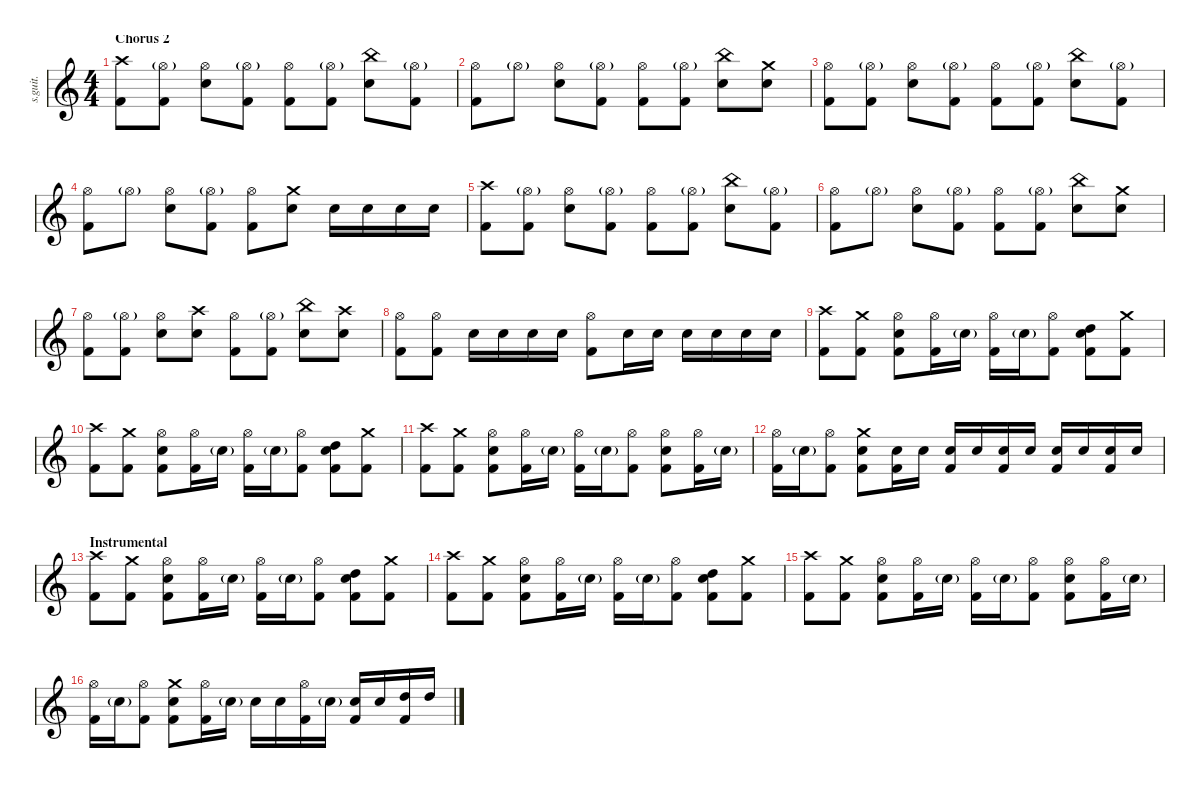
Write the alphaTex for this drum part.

\defaultSystemsLayout 4
\hideDynamics
\bracketExtendMode nobrackets
\track ("Feargal Lawler (Drums)" "s.guit.") {instrument percussion}
\staff {score}
\articulation defaults
\ts (4 4)
\section ("" "Chorus 2")
\tempo (82 hide)
\clef g2
\ks c
("Crash high (hit)" "Kick (hit) 2").8{lyrics (0 "") lyrics (1 "") lyrics (2 "") lyrics (3 "") lyrics (4 "") dy ff} ("Hi-Hat (open)"{g} "Kick (hit) 2").8{lyrics (0 "") lyrics (1 "") lyrics (2 "") lyrics (3 "") lyrics (4 "")} ("Hi-Hat (open)" "Snare (hit) 2").8{lyrics (0 "") lyrics (1 "") lyrics (2 "") lyrics (3 "") lyrics (4 "")} ("Hi-Hat (open)"{g} "Kick (hit) 2").8{lyrics (0 "") lyrics (1 "") lyrics (2 "") lyrics (3 "") lyrics (4 "")} ("Hi-Hat (open)" "Kick (hit) 2").8{lyrics (0 "") lyrics (1 "") lyrics (2 "") lyrics (3 "") lyrics (4 "")} ("Hi-Hat (open)"{g} "Kick (hit) 2").8{lyrics (0 "") lyrics (1 "") lyrics (2 "") lyrics (3 "") lyrics (4 "")} ("China (hit)" "Snare (hit) 2").8{lyrics (0 "") lyrics (1 "") lyrics (2 "") lyrics (3 "") lyrics (4 "")} ("Hi-Hat (open)"{g} "Kick (hit) 2").8{lyrics (0 "") lyrics (1 "") lyrics (2 "") lyrics (3 "") lyrics (4 "")} |
("Hi-Hat (open)" "Kick (hit) 2").8{lyrics (0 "") lyrics (1 "") lyrics (2 "") lyrics (3 "") lyrics (4 "")} "Hi-Hat (open)"{g}.8{lyrics (0 "") lyrics (1 "") lyrics (2 "") lyrics (3 "") lyrics (4 "")} ("Hi-Hat (open)" "Snare (hit) 2").8{lyrics (0 "") lyrics (1 "") lyrics (2 "") lyrics (3 "") lyrics (4 "")} ("Hi-Hat (open)"{g} "Kick (hit) 2").8{lyrics (0 "") lyrics (1 "") lyrics (2 "") lyrics (3 "") lyrics (4 "")} ("Hi-Hat (open)" "Kick (hit) 2").8{lyrics (0 "") lyrics (1 "") lyrics (2 "") lyrics (3 "") lyrics (4 "")} ("Hi-Hat (open)"{g} "Kick (hit) 2").8{lyrics (0 "") lyrics (1 "") lyrics (2 "") lyrics (3 "") lyrics (4 "")} ("China (hit)" "Snare (hit) 2").8{lyrics (0 "") lyrics (1 "") lyrics (2 "") lyrics (3 "") lyrics (4 "")} ("Crash medium (hit)" "Snare (hit) 2").8{lyrics (0 "") lyrics (1 "") lyrics (2 "") lyrics (3 "") lyrics (4 "")} |
("Hi-Hat (open)" "Kick (hit) 2").8{lyrics (0 "") lyrics (1 "") lyrics (2 "") lyrics (3 "") lyrics (4 "")} ("Hi-Hat (open)"{g} "Kick (hit) 2").8{lyrics (0 "") lyrics (1 "") lyrics (2 "") lyrics (3 "") lyrics (4 "")} ("Hi-Hat (open)" "Snare (hit) 2").8{lyrics (0 "") lyrics (1 "") lyrics (2 "") lyrics (3 "") lyrics (4 "")} ("Hi-Hat (open)"{g} "Kick (hit) 2").8{lyrics (0 "") lyrics (1 "") lyrics (2 "") lyrics (3 "") lyrics (4 "")} ("Hi-Hat (open)" "Kick (hit) 2").8{lyrics (0 "") lyrics (1 "") lyrics (2 "") lyrics (3 "") lyrics (4 "")} ("Hi-Hat (open)"{g} "Kick (hit) 2").8{lyrics (0 "") lyrics (1 "") lyrics (2 "") lyrics (3 "") lyrics (4 "")} ("China (hit)" "Snare (hit) 2").8{lyrics (0 "") lyrics (1 "") lyrics (2 "") lyrics (3 "") lyrics (4 "")} ("Hi-Hat (open)"{g} "Kick (hit) 2").8{lyrics (0 "") lyrics (1 "") lyrics (2 "") lyrics (3 "") lyrics (4 "")} |
("Hi-Hat (open)" "Kick (hit) 2").8{lyrics (0 "") lyrics (1 "") lyrics (2 "") lyrics (3 "") lyrics (4 "")} "Hi-Hat (open)"{g}.8{lyrics (0 "") lyrics (1 "") lyrics (2 "") lyrics (3 "") lyrics (4 "")} ("Hi-Hat (open)" "Snare (hit) 2").8{lyrics (0 "") lyrics (1 "") lyrics (2 "") lyrics (3 "") lyrics (4 "")} ("Hi-Hat (open)"{g} "Kick (hit) 2").8{lyrics (0 "") lyrics (1 "") lyrics (2 "") lyrics (3 "") lyrics (4 "")} ("Hi-Hat (open)" "Kick (hit) 2").8{lyrics (0 "") lyrics (1 "") lyrics (2 "") lyrics (3 "") lyrics (4 "")} ("Crash medium (hit)" "Snare (hit) 2").8{lyrics (0 "") lyrics (1 "") lyrics (2 "") lyrics (3 "") lyrics (4 "")} "Snare (hit) 2".16{lyrics (0 "") lyrics (1 "") lyrics (2 "") lyrics (3 "") lyrics (4 "")} "Snare (hit) 2".16{lyrics (0 "") lyrics (1 "") lyrics (2 "") lyrics (3 "") lyrics (4 "")} "Snare (hit) 2".16{lyrics (0 "") lyrics (1 "") lyrics (2 "") lyrics (3 "") lyrics (4 "")} "Snare (hit) 2".16{lyrics (0 "") lyrics (1 "") lyrics (2 "") lyrics (3 "") lyrics (4 "")} |
("Crash high (hit)" "Kick (hit) 2").8{lyrics (0 "") lyrics (1 "") lyrics (2 "") lyrics (3 "") lyrics (4 "")} ("Hi-Hat (open)"{g} "Kick (hit) 2").8{lyrics (0 "") lyrics (1 "") lyrics (2 "") lyrics (3 "") lyrics (4 "")} ("Hi-Hat (open)" "Snare (hit) 2").8{lyrics (0 "") lyrics (1 "") lyrics (2 "") lyrics (3 "") lyrics (4 "")} ("Hi-Hat (open)"{g} "Kick (hit) 2").8{lyrics (0 "") lyrics (1 "") lyrics (2 "") lyrics (3 "") lyrics (4 "")} ("Hi-Hat (open)" "Kick (hit) 2").8{lyrics (0 "") lyrics (1 "") lyrics (2 "") lyrics (3 "") lyrics (4 "")} ("Hi-Hat (open)"{g} "Kick (hit) 2").8{lyrics (0 "") lyrics (1 "") lyrics (2 "") lyrics (3 "") lyrics (4 "")} ("China (hit)" "Snare (hit) 2").8{lyrics (0 "") lyrics (1 "") lyrics (2 "") lyrics (3 "") lyrics (4 "")} ("Hi-Hat (open)"{g} "Kick (hit) 2").8{lyrics (0 "") lyrics (1 "") lyrics (2 "") lyrics (3 "") lyrics (4 "")} |
("Hi-Hat (open)" "Kick (hit) 2").8{lyrics (0 "") lyrics (1 "") lyrics (2 "") lyrics (3 "") lyrics (4 "")} "Hi-Hat (open)"{g}.8{lyrics (0 "") lyrics (1 "") lyrics (2 "") lyrics (3 "") lyrics (4 "")} ("Hi-Hat (open)" "Snare (hit) 2").8{lyrics (0 "") lyrics (1 "") lyrics (2 "") lyrics (3 "") lyrics (4 "")} ("Hi-Hat (open)"{g} "Kick (hit) 2").8{lyrics (0 "") lyrics (1 "") lyrics (2 "") lyrics (3 "") lyrics (4 "")} ("Hi-Hat (open)" "Kick (hit) 2").8{lyrics (0 "") lyrics (1 "") lyrics (2 "") lyrics (3 "") lyrics (4 "")} ("Hi-Hat (open)"{g} "Kick (hit) 2").8{lyrics (0 "") lyrics (1 "") lyrics (2 "") lyrics (3 "") lyrics (4 "")} ("China (hit)" "Snare (hit) 2").8{lyrics (0 "") lyrics (1 "") lyrics (2 "") lyrics (3 "") lyrics (4 "")} ("Crash medium (hit)" "Snare (hit) 2").8{lyrics (0 "") lyrics (1 "") lyrics (2 "") lyrics (3 "") lyrics (4 "")} |
("Hi-Hat (open)" "Kick (hit) 2").8{lyrics (0 "") lyrics (1 "") lyrics (2 "") lyrics (3 "") lyrics (4 "")} ("Hi-Hat (open)"{g} "Kick (hit) 2").8{lyrics (0 "") lyrics (1 "") lyrics (2 "") lyrics (3 "") lyrics (4 "")} ("Hi-Hat (open)" "Snare (hit) 2").8{lyrics (0 "") lyrics (1 "") lyrics (2 "") lyrics (3 "") lyrics (4 "")} ("Crash high (hit)" "Snare (hit) 2").8{lyrics (0 "") lyrics (1 "") lyrics (2 "") lyrics (3 "") lyrics (4 "")} ("Hi-Hat (open)" "Kick (hit) 2").8{lyrics (0 "") lyrics (1 "") lyrics (2 "") lyrics (3 "") lyrics (4 "")} ("Hi-Hat (open)"{g} "Kick (hit) 2").8{lyrics (0 "") lyrics (1 "") lyrics (2 "") lyrics (3 "") lyrics (4 "")} ("China (hit)" "Snare (hit) 2").8{lyrics (0 "") lyrics (1 "") lyrics (2 "") lyrics (3 "") lyrics (4 "")} ("Crash high (hit)" "Snare (hit) 2").8{lyrics (0 "") lyrics (1 "") lyrics (2 "") lyrics (3 "") lyrics (4 "")} |
("Hi-Hat (open)" "Kick (hit) 2").8{lyrics (0 "") lyrics (1 "") lyrics (2 "") lyrics (3 "") lyrics (4 "")} ("Hi-Hat (open)" "Kick (hit) 2").8{lyrics (0 "") lyrics (1 "") lyrics (2 "") lyrics (3 "") lyrics (4 "")} "Snare (hit) 2".16{lyrics (0 "") lyrics (1 "") lyrics (2 "") lyrics (3 "") lyrics (4 "")} "Snare (hit) 2".16{lyrics (0 "") lyrics (1 "") lyrics (2 "") lyrics (3 "") lyrics (4 "")} "Snare (hit) 2".16{lyrics (0 "") lyrics (1 "") lyrics (2 "") lyrics (3 "") lyrics (4 "")} "Snare (hit) 2".16{lyrics (0 "") lyrics (1 "") lyrics (2 "") lyrics (3 "") lyrics (4 "")} ("Hi-Hat (open)" "Kick (hit) 2").8{lyrics (0 "") lyrics (1 "") lyrics (2 "") lyrics (3 "") lyrics (4 "")} "Snare (hit) 2".16{lyrics (0 "") lyrics (1 "") lyrics (2 "") lyrics (3 "") lyrics (4 "")} "Snare (hit) 2".16{lyrics (0 "") lyrics (1 "") lyrics (2 "") lyrics (3 "") lyrics (4 "")} "Snare (hit) 2".16{lyrics (0 "") lyrics (1 "") lyrics (2 "") lyrics (3 "") lyrics (4 "")} "Snare (hit) 2".16{lyrics (0 "") lyrics (1 "") lyrics (2 "") lyrics (3 "") lyrics (4 "")} "Snare (hit) 2".16{lyrics (0 "") lyrics (1 "") lyrics (2 "") lyrics (3 "") lyrics (4 "")} "Snare (hit) 2".16{lyrics (0 "") lyrics (1 "") lyrics (2 "") lyrics (3 "") lyrics (4 "")} |
("Crash high (hit)" "Kick (hit) 2").8{lyrics (0 "") lyrics (1 "") lyrics (2 "") lyrics (3 "") lyrics (4 "")} ("Kick (hit) 2" "Crash medium (hit)").8{lyrics (0 "") lyrics (1 "") lyrics (2 "") lyrics (3 "") lyrics (4 "")} ("Hi-Hat (open)" "Snare (hit) 2" "Kick (hit) 2").8{lyrics (0 "") lyrics (1 "") lyrics (2 "") lyrics (3 "") lyrics (4 "")} ("Hi-Hat (open)" "Kick (hit) 2").16{lyrics (0 "") lyrics (1 "") lyrics (2 "") lyrics (3 "") lyrics (4 "")} "Snare (hit) 2"{g}.16{lyrics (0 "") lyrics (1 "") lyrics (2 "") lyrics (3 "") lyrics (4 "")} ("Hi-Hat (open)" "Kick (hit) 2").16{lyrics (0 "") lyrics (1 "") lyrics (2 "") lyrics (3 "") lyrics (4 "")} "Snare (hit) 2"{g}.16{lyrics (0 "") lyrics (1 "") lyrics (2 "") lyrics (3 "") lyrics (4 "")} ("Hi-Hat (open)" "Kick (hit) 2").8{lyrics (0 "") lyrics (1 "") lyrics (2 "") lyrics (3 "") lyrics (4 "")} ("Snare (hit) 2" "Kick (hit) 2" "High Tom (hit)").8{lyrics (0 "") lyrics (1 "") lyrics (2 "") lyrics (3 "") lyrics (4 "")} ("Crash medium (hit)" "Kick (hit) 2").8{lyrics (0 "") lyrics (1 "") lyrics (2 "") lyrics (3 "") lyrics (4 "")} |
("Crash high (hit)" "Kick (hit) 2").8{lyrics (0 "") lyrics (1 "") lyrics (2 "") lyrics (3 "") lyrics (4 "")} ("Crash medium (hit)" "Kick (hit) 2").8{lyrics (0 "") lyrics (1 "") lyrics (2 "") lyrics (3 "") lyrics (4 "")} ("Hi-Hat (open)" "Snare (hit) 2" "Kick (hit) 2").8{lyrics (0 "") lyrics (1 "") lyrics (2 "") lyrics (3 "") lyrics (4 "")} ("Hi-Hat (open)" "Kick (hit) 2").16{lyrics (0 "") lyrics (1 "") lyrics (2 "") lyrics (3 "") lyrics (4 "")} "Snare (hit) 2"{g}.16{lyrics (0 "") lyrics (1 "") lyrics (2 "") lyrics (3 "") lyrics (4 "")} ("Hi-Hat (open)" "Kick (hit) 2").16{lyrics (0 "") lyrics (1 "") lyrics (2 "") lyrics (3 "") lyrics (4 "")} "Snare (hit) 2"{g}.16{lyrics (0 "") lyrics (1 "") lyrics (2 "") lyrics (3 "") lyrics (4 "")} ("Hi-Hat (open)" "Kick (hit) 2").8{lyrics (0 "") lyrics (1 "") lyrics (2 "") lyrics (3 "") lyrics (4 "")} ("Snare (hit) 2" "Kick (hit) 2" "High Tom (hit)").8{lyrics (0 "") lyrics (1 "") lyrics (2 "") lyrics (3 "") lyrics (4 "")} ("Crash medium (hit)" "Kick (hit) 2").8{lyrics (0 "") lyrics (1 "") lyrics (2 "") lyrics (3 "") lyrics (4 "")} |
("Crash high (hit)" "Kick (hit) 2").8{lyrics (0 "") lyrics (1 "") lyrics (2 "") lyrics (3 "") lyrics (4 "")} ("Crash medium (hit)" "Kick (hit) 2").8{lyrics (0 "") lyrics (1 "") lyrics (2 "") lyrics (3 "") lyrics (4 "")} ("Hi-Hat (open)" "Snare (hit) 2" "Kick (hit) 2").8{lyrics (0 "") lyrics (1 "") lyrics (2 "") lyrics (3 "") lyrics (4 "")} ("Hi-Hat (open)" "Kick (hit) 2").16{lyrics (0 "") lyrics (1 "") lyrics (2 "") lyrics (3 "") lyrics (4 "")} "Snare (hit) 2"{g}.16{lyrics (0 "") lyrics (1 "") lyrics (2 "") lyrics (3 "") lyrics (4 "")} ("Hi-Hat (open)" "Kick (hit) 2").16{lyrics (0 "") lyrics (1 "") lyrics (2 "") lyrics (3 "") lyrics (4 "")} "Snare (hit) 2"{g}.16{lyrics (0 "") lyrics (1 "") lyrics (2 "") lyrics (3 "") lyrics (4 "")} ("Hi-Hat (open)" "Kick (hit) 2").8{lyrics (0 "") lyrics (1 "") lyrics (2 "") lyrics (3 "") lyrics (4 "")} ("Snare (hit) 2" "Kick (hit) 2" "Hi-Hat (open)").8{lyrics (0 "") lyrics (1 "") lyrics (2 "") lyrics (3 "") lyrics (4 "")} ("Hi-Hat (open)" "Kick (hit) 2").16{lyrics (0 "") lyrics (1 "") lyrics (2 "") lyrics (3 "") lyrics (4 "")} "Snare (hit) 2"{g}.16{lyrics (0 "") lyrics (1 "") lyrics (2 "") lyrics (3 "") lyrics (4 "")} |
("Hi-Hat (open)" "Kick (hit) 2").16{lyrics (0 "") lyrics (1 "") lyrics (2 "") lyrics (3 "") lyrics (4 "")} "Snare (hit) 2"{g}.16{lyrics (0 "") lyrics (1 "") lyrics (2 "") lyrics (3 "") lyrics (4 "")} ("Hi-Hat (open)" "Kick (hit) 2").8{lyrics (0 "") lyrics (1 "") lyrics (2 "") lyrics (3 "") lyrics (4 "")} ("Snare (hit) 2" "Kick (hit) 2" "Crash medium (hit)").8{lyrics (0 "") lyrics (1 "") lyrics (2 "") lyrics (3 "") lyrics (4 "")} ("Snare (hit) 2" "Kick (hit) 2").16{lyrics (0 "") lyrics (1 "") lyrics (2 "") lyrics (3 "") lyrics (4 "")} "Snare (hit) 2".16{lyrics (0 "") lyrics (1 "") lyrics (2 "") lyrics (3 "") lyrics (4 "")} ("Snare (hit) 2" "Kick (hit) 2").16{lyrics (0 "") lyrics (1 "") lyrics (2 "") lyrics (3 "") lyrics (4 "")} "Snare (hit) 2".16{lyrics (0 "") lyrics (1 "") lyrics (2 "") lyrics (3 "") lyrics (4 "")} ("Snare (hit) 2" "Kick (hit) 2").16{lyrics (0 "") lyrics (1 "") lyrics (2 "") lyrics (3 "") lyrics (4 "")} "Snare (hit) 2".16{lyrics (0 "") lyrics (1 "") lyrics (2 "") lyrics (3 "") lyrics (4 "")} ("Snare (hit) 2" "Kick (hit) 2").16{lyrics (0 "") lyrics (1 "") lyrics (2 "") lyrics (3 "") lyrics (4 "")} "Snare (hit) 2".16{lyrics (0 "") lyrics (1 "") lyrics (2 "") lyrics (3 "") lyrics (4 "")} ("Snare (hit) 2" "Kick (hit) 2").16{lyrics (0 "") lyrics (1 "") lyrics (2 "") lyrics (3 "") lyrics (4 "")} "Snare (hit) 2".16{lyrics (0 "") lyrics (1 "") lyrics (2 "") lyrics (3 "") lyrics (4 "")} |
\section ("" "Instrumental")
("Crash high (hit)" "Kick (hit) 2").8{lyrics (0 "") lyrics (1 "") lyrics (2 "") lyrics (3 "") lyrics (4 "")} ("Crash medium (hit)" "Kick (hit) 2").8{lyrics (0 "") lyrics (1 "") lyrics (2 "") lyrics (3 "") lyrics (4 "")} ("Hi-Hat (open)" "Snare (hit) 2" "Kick (hit) 2").8{lyrics (0 "") lyrics (1 "") lyrics (2 "") lyrics (3 "") lyrics (4 "")} ("Hi-Hat (open)" "Kick (hit) 2").16{lyrics (0 "") lyrics (1 "") lyrics (2 "") lyrics (3 "") lyrics (4 "")} "Snare (hit) 2"{g}.16{lyrics (0 "") lyrics (1 "") lyrics (2 "") lyrics (3 "") lyrics (4 "")} ("Hi-Hat (open)" "Kick (hit) 2").16{lyrics (0 "") lyrics (1 "") lyrics (2 "") lyrics (3 "") lyrics (4 "")} "Snare (hit) 2"{g}.16{lyrics (0 "") lyrics (1 "") lyrics (2 "") lyrics (3 "") lyrics (4 "")} ("Hi-Hat (open)" "Kick (hit) 2").8{lyrics (0 "") lyrics (1 "") lyrics (2 "") lyrics (3 "") lyrics (4 "")} ("Snare (hit) 2" "Kick (hit) 2" "High Tom (hit)").8{lyrics (0 "") lyrics (1 "") lyrics (2 "") lyrics (3 "") lyrics (4 "")} ("Crash medium (hit)" "Kick (hit) 2").8{lyrics (0 "") lyrics (1 "") lyrics (2 "") lyrics (3 "") lyrics (4 "")} |
("Crash high (hit)" "Kick (hit) 2").8{lyrics (0 "") lyrics (1 "") lyrics (2 "") lyrics (3 "") lyrics (4 "")} ("Crash medium (hit)" "Kick (hit) 2").8{lyrics (0 "") lyrics (1 "") lyrics (2 "") lyrics (3 "") lyrics (4 "")} ("Hi-Hat (open)" "Snare (hit) 2" "Kick (hit) 2").8{lyrics (0 "") lyrics (1 "") lyrics (2 "") lyrics (3 "") lyrics (4 "")} ("Hi-Hat (open)" "Kick (hit) 2").16{lyrics (0 "") lyrics (1 "") lyrics (2 "") lyrics (3 "") lyrics (4 "")} "Snare (hit) 2"{g}.16{lyrics (0 "") lyrics (1 "") lyrics (2 "") lyrics (3 "") lyrics (4 "")} ("Hi-Hat (open)" "Kick (hit) 2").16{lyrics (0 "") lyrics (1 "") lyrics (2 "") lyrics (3 "") lyrics (4 "")} "Snare (hit) 2"{g}.16{lyrics (0 "") lyrics (1 "") lyrics (2 "") lyrics (3 "") lyrics (4 "")} ("Hi-Hat (open)" "Kick (hit) 2").8{lyrics (0 "") lyrics (1 "") lyrics (2 "") lyrics (3 "") lyrics (4 "")} ("Snare (hit) 2" "Kick (hit) 2" "High Tom (hit)").8{lyrics (0 "") lyrics (1 "") lyrics (2 "") lyrics (3 "") lyrics (4 "")} ("Crash medium (hit)" "Kick (hit) 2").8{lyrics (0 "") lyrics (1 "") lyrics (2 "") lyrics (3 "") lyrics (4 "")} |
("Crash high (hit)" "Kick (hit) 2").8{lyrics (0 "") lyrics (1 "") lyrics (2 "") lyrics (3 "") lyrics (4 "")} ("Crash medium (hit)" "Kick (hit) 2").8{lyrics (0 "") lyrics (1 "") lyrics (2 "") lyrics (3 "") lyrics (4 "")} ("Hi-Hat (open)" "Snare (hit) 2" "Kick (hit) 2").8{lyrics (0 "") lyrics (1 "") lyrics (2 "") lyrics (3 "") lyrics (4 "")} ("Hi-Hat (open)" "Kick (hit) 2").16{lyrics (0 "") lyrics (1 "") lyrics (2 "") lyrics (3 "") lyrics (4 "")} "Snare (hit) 2"{g}.16{lyrics (0 "") lyrics (1 "") lyrics (2 "") lyrics (3 "") lyrics (4 "")} ("Hi-Hat (open)" "Kick (hit) 2").16{lyrics (0 "") lyrics (1 "") lyrics (2 "") lyrics (3 "") lyrics (4 "")} "Snare (hit) 2"{g}.16{lyrics (0 "") lyrics (1 "") lyrics (2 "") lyrics (3 "") lyrics (4 "")} ("Hi-Hat (open)" "Kick (hit) 2").8{lyrics (0 "") lyrics (1 "") lyrics (2 "") lyrics (3 "") lyrics (4 "")} ("Snare (hit) 2" "Kick (hit) 2" "Hi-Hat (open)").8{lyrics (0 "") lyrics (1 "") lyrics (2 "") lyrics (3 "") lyrics (4 "")} ("Hi-Hat (open)" "Kick (hit) 2").16{lyrics (0 "") lyrics (1 "") lyrics (2 "") lyrics (3 "") lyrics (4 "")} "Snare (hit) 2"{g}.16{lyrics (0 "") lyrics (1 "") lyrics (2 "") lyrics (3 "") lyrics (4 "")} |
("Hi-Hat (open)" "Kick (hit) 2").16{lyrics (0 "") lyrics (1 "") lyrics (2 "") lyrics (3 "") lyrics (4 "")} "Snare (hit) 2"{g}.16{lyrics (0 "") lyrics (1 "") lyrics (2 "") lyrics (3 "") lyrics (4 "")} ("Hi-Hat (open)" "Kick (hit) 2").8{lyrics (0 "") lyrics (1 "") lyrics (2 "") lyrics (3 "") lyrics (4 "")} ("Snare (hit) 2" "Crash medium (hit)" "Kick (hit) 2").8{lyrics (0 "") lyrics (1 "") lyrics (2 "") lyrics (3 "") lyrics (4 "")} ("Kick (hit) 2" "Hi-Hat (open)").16{lyrics (0 "") lyrics (1 "") lyrics (2 "") lyrics (3 "") lyrics (4 "")} "Snare (hit) 2"{g}.16{lyrics (0 "") lyrics (1 "") lyrics (2 "") lyrics (3 "") lyrics (4 "")} "Snare (hit) 2".16{lyrics (0 "") lyrics (1 "") lyrics (2 "") lyrics (3 "") lyrics (4 "")} "Snare (hit) 2".16{lyrics (0 "") lyrics (1 "") lyrics (2 "") lyrics (3 "") lyrics (4 "")} ("Hi-Hat (open)" "Kick (hit) 2").16{lyrics (0 "") lyrics (1 "") lyrics (2 "") lyrics (3 "") lyrics (4 "")} "Snare (hit) 2"{g}.16{lyrics (0 "") lyrics (1 "") lyrics (2 "") lyrics (3 "") lyrics (4 "")} ("Snare (hit) 2" "Kick (hit) 2").16{lyrics (0 "") lyrics (1 "") lyrics (2 "") lyrics (3 "") lyrics (4 "")} "Snare (hit) 2".16{lyrics (0 "") lyrics (1 "") lyrics (2 "") lyrics (3 "") lyrics (4 "")} ("Kick (hit) 2" "High Tom (hit)").16{lyrics (0 "") lyrics (1 "") lyrics (2 "") lyrics (3 "") lyrics (4 "")} "High Tom (hit)".16{lyrics (0 "") lyrics (1 "") lyrics (2 "") lyrics (3 "") lyrics (4 "")}
